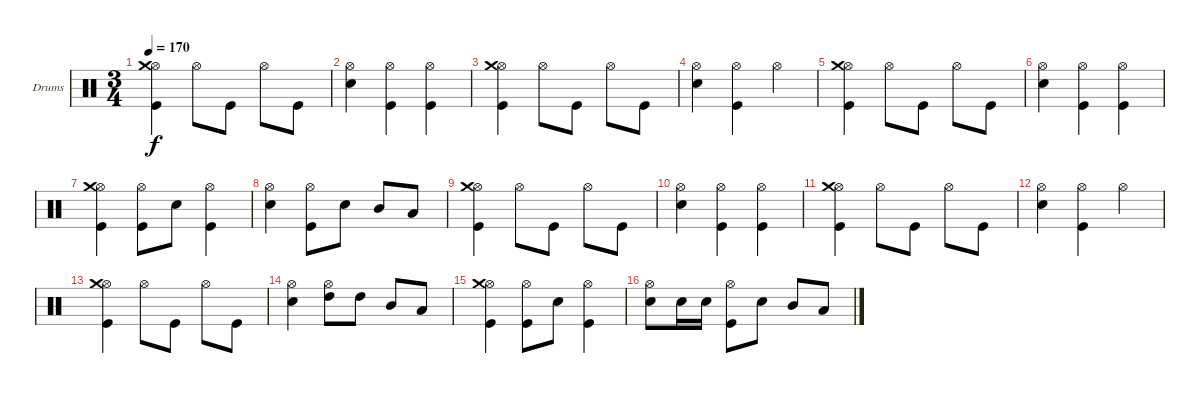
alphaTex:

\defaultSystemsLayout 4
\bracketExtendMode groupsimilarinstruments
\firstSystemTrackNameOrientation horizontal
\otherSystemsTrackNameOrientation horizontal
\track ("Drums" "Drums") {instrument percussion}
\staff {score}
\articulation defaults
\ts (3 4)
\tempo 170
\clef neutral
\ks c
("Hi-Hat (open)" "Kick (hit)" "Crash medium (hit)").4{dy f} "Hi-Hat (open)".8 "Kick (hit)".8 "Hi-Hat (open)".8 "Kick (hit)".8 |
("Hi-Hat (open)" "Snare (hit) 2").4 ("Hi-Hat (open)" "Kick (hit)").4 ("Hi-Hat (open)" "Kick (hit)").4 |
("Hi-Hat (open)" "Kick (hit)" "Crash medium (hit)").4 "Hi-Hat (open)".8 "Kick (hit)".8 "Hi-Hat (open)".8 "Kick (hit)".8 |
("Hi-Hat (open)" "Snare (hit) 2").4 ("Hi-Hat (open)" "Kick (hit)").4 "Hi-Hat (open)".4 |
("Hi-Hat (open)" "Kick (hit)" "Crash medium (hit)").4 "Hi-Hat (open)".8 "Kick (hit)".8 "Hi-Hat (open)".8 "Kick (hit)".8 |
("Hi-Hat (open)" "Snare (hit) 2").4 ("Hi-Hat (open)" "Kick (hit)").4 ("Hi-Hat (open)" "Kick (hit)").4 |
("Hi-Hat (open)" "Kick (hit)" "Crash medium (hit)").4 ("Hi-Hat (open)" "Kick (hit)").8 "Snare (hit) 2".8 ("Hi-Hat (open)" "Kick (hit)").4 |
("Hi-Hat (open)" "Snare (hit) 2").4 ("Hi-Hat (open)" "Kick (hit)").8 "Snare (hit) 2".8 "Mid Tom (hit)".8 "Low Tom (hit)".8 |
("Hi-Hat (open)" "Kick (hit)" "Crash medium (hit)").4 "Hi-Hat (open)".8 "Kick (hit)".8 "Hi-Hat (open)".8 "Kick (hit)".8 |
("Hi-Hat (open)" "Snare (hit) 2").4 ("Hi-Hat (open)" "Kick (hit)").4 ("Hi-Hat (open)" "Kick (hit)").4 |
("Hi-Hat (open)" "Kick (hit)" "Crash medium (hit)").4 "Hi-Hat (open)".8 "Kick (hit)".8 "Hi-Hat (open)".8 "Kick (hit)".8 |
("Hi-Hat (open)" "Snare (hit) 2").4 ("Hi-Hat (open)" "Kick (hit)").4 "Hi-Hat (open)".4 |
("Hi-Hat (open)" "Kick (hit)" "Crash medium (hit)").4 "Hi-Hat (open)".8 "Kick (hit)".8 "Hi-Hat (open)".8 "Kick (hit)".8 |
("Hi-Hat (open)" "Snare (hit) 2").4 ("Hi-Hat (open)" "High Tom (hit)").8 "High Tom (hit)".8 "Mid Tom (hit)".8 "Low Tom (hit)".8 |
("Hi-Hat (open)" "Kick (hit)" "Crash medium (hit)").4 ("Hi-Hat (open)" "Kick (hit)").8 "Snare (hit) 2".8 ("Hi-Hat (open)" "Kick (hit)").4 |
("Hi-Hat (open)" "Snare (hit) 2").8 "Snare (hit) 2".16 "Snare (hit) 2".16 ("Hi-Hat (open)" "Kick (hit)").8 "Snare (hit) 2".8 "Mid Tom (hit)".8 "Low Tom (hit)".8
